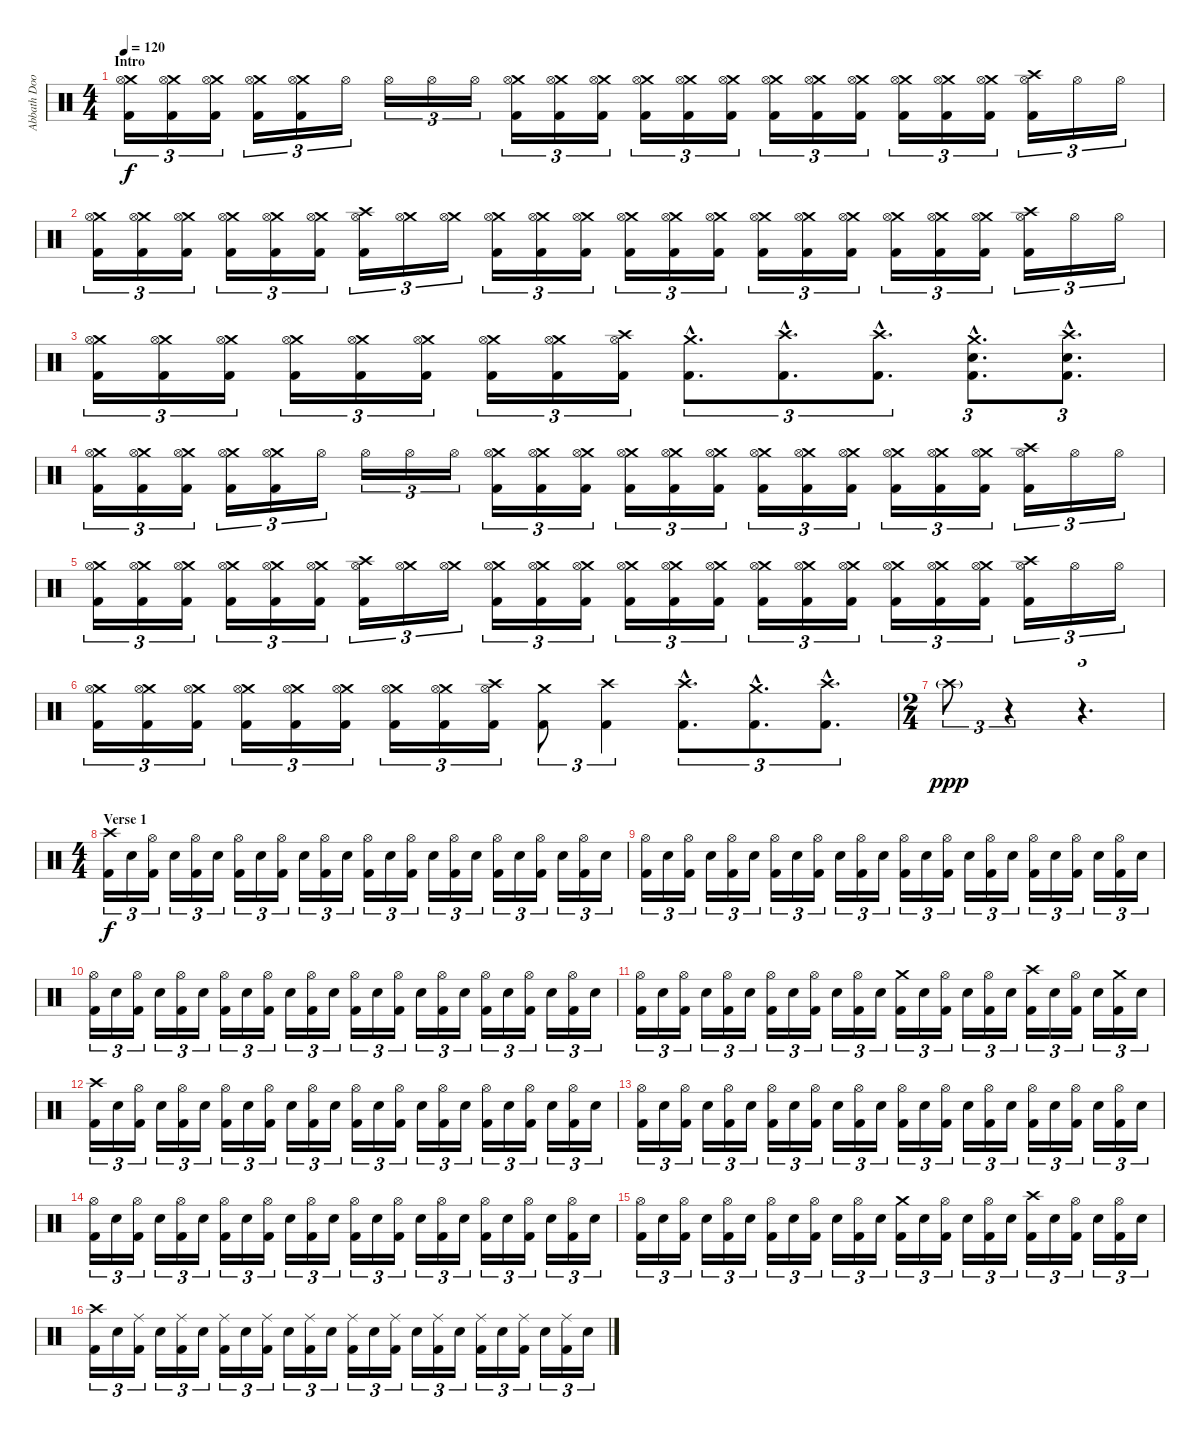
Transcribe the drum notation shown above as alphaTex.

\track ("Abbath Doom Occulta" "Abbath Doo") {instrument percussion}
\staff {score}
\articulation defaults
\ts (4 4)
\section ("" "Intro")
\tempo 120
\tempo 140
\tempo 120
\clef neutral
\ks c
("Crash medium (hit)" "Hi-Hat (open)" "Kick (hit) 2").16{tu (3 2) dy f} ("Crash medium (hit)" "Hi-Hat (open)" "Kick (hit) 2").16{tu (3 2)} ("Crash medium (hit)" "Hi-Hat (open)" "Kick (hit) 2").16{tu (3 2)} ("Crash medium (hit)" "Hi-Hat (open)" "Kick (hit) 2").16{tu (3 2)} ("Crash medium (hit)" "Hi-Hat (open)" "Kick (hit) 2").16{tu (3 2)} "Hi-Hat (open)".16{tu (3 2)} "Hi-Hat (open)".16{tu (3 2)} "Hi-Hat (open)".16{tu (3 2)} "Hi-Hat (open)".16{tu (3 2)} ("Crash medium (hit)" "Hi-Hat (open)" "Kick (hit) 2").16{tu (3 2)} ("Crash medium (hit)" "Hi-Hat (open)" "Kick (hit) 2").16{tu (3 2)} ("Crash medium (hit)" "Hi-Hat (open)" "Kick (hit) 2").16{tu (3 2)} ("Crash medium (hit)" "Hi-Hat (open)" "Kick (hit) 2").16{tu (3 2)} ("Crash medium (hit)" "Hi-Hat (open)" "Kick (hit) 2").16{tu (3 2)} ("Crash medium (hit)" "Hi-Hat (open)" "Kick (hit) 2").16{tu (3 2)} ("Crash medium (hit)" "Hi-Hat (open)" "Kick (hit) 2").16{tu (3 2)} ("Crash medium (hit)" "Hi-Hat (open)" "Kick (hit) 2").16{tu (3 2)} ("Crash medium (hit)" "Hi-Hat (open)" "Kick (hit) 2").16{tu (3 2)} ("Crash medium (hit)" "Hi-Hat (open)" "Kick (hit) 2").16{tu (3 2)} ("Crash medium (hit)" "Hi-Hat (open)" "Kick (hit) 2").16{tu (3 2)} ("Crash medium (hit)" "Hi-Hat (open)" "Kick (hit) 2").16{tu (3 2)} ("Crash high (hit)" "Hi-Hat (open)" "Kick (hit) 2").16{tu (3 2)} "Hi-Hat (open)".16{tu (3 2)} "Hi-Hat (open)".16{tu (3 2)} |
("Crash medium (hit)" "Hi-Hat (open)" "Kick (hit) 2").16{tu (3 2)} ("Crash medium (hit)" "Hi-Hat (open)" "Kick (hit) 2").16{tu (3 2)} ("Crash medium (hit)" "Hi-Hat (open)" "Kick (hit) 2").16{tu (3 2)} ("Crash medium (hit)" "Hi-Hat (open)" "Kick (hit) 2").16{tu (3 2)} ("Crash medium (hit)" "Hi-Hat (open)" "Kick (hit) 2").16{tu (3 2)} ("Crash medium (hit)" "Hi-Hat (open)" "Kick (hit) 2").16{tu (3 2)} ("Crash high (hit)" "Hi-Hat (open)" "Kick (hit) 2").16{tu (3 2)} ("Crash medium (hit)" "Hi-Hat (open)").16{tu (3 2)} ("Crash medium (hit)" "Hi-Hat (open)").16{tu (3 2)} ("Crash medium (hit)" "Hi-Hat (open)" "Kick (hit) 2").16{tu (3 2)} ("Crash medium (hit)" "Hi-Hat (open)" "Kick (hit) 2").16{tu (3 2)} ("Crash medium (hit)" "Hi-Hat (open)" "Kick (hit) 2").16{tu (3 2)} ("Crash medium (hit)" "Hi-Hat (open)" "Kick (hit) 2").16{tu (3 2)} ("Crash medium (hit)" "Hi-Hat (open)" "Kick (hit) 2").16{tu (3 2)} ("Crash medium (hit)" "Hi-Hat (open)" "Kick (hit) 2").16{tu (3 2)} ("Crash medium (hit)" "Hi-Hat (open)" "Kick (hit) 2").16{tu (3 2)} ("Crash medium (hit)" "Hi-Hat (open)" "Kick (hit) 2").16{tu (3 2)} ("Crash medium (hit)" "Hi-Hat (open)" "Kick (hit) 2").16{tu (3 2)} ("Crash medium (hit)" "Hi-Hat (open)" "Kick (hit) 2").16{tu (3 2)} ("Crash medium (hit)" "Hi-Hat (open)" "Kick (hit) 2").16{tu (3 2)} ("Crash medium (hit)" "Hi-Hat (open)" "Kick (hit) 2").16{tu (3 2)} ("Crash high (hit)" "Hi-Hat (open)" "Kick (hit) 2").16{tu (3 2)} "Hi-Hat (open)".16{tu (3 2)} "Hi-Hat (open)".16{tu (3 2)} |
("Crash medium (hit)" "Hi-Hat (open)" "Kick (hit) 2").16{tu (3 2)} ("Crash medium (hit)" "Hi-Hat (open)" "Kick (hit) 2").16{tu (3 2)} ("Crash medium (hit)" "Hi-Hat (open)" "Kick (hit) 2").16{tu (3 2)} ("Crash medium (hit)" "Hi-Hat (open)" "Kick (hit) 2").16{tu (3 2)} ("Crash medium (hit)" "Hi-Hat (open)" "Kick (hit) 2").16{tu (3 2)} ("Crash medium (hit)" "Hi-Hat (open)" "Kick (hit) 2").16{tu (3 2)} ("Crash medium (hit)" "Hi-Hat (open)" "Kick (hit) 2").16{tu (3 2)} ("Crash medium (hit)" "Hi-Hat (open)" "Kick (hit) 2").16{tu (3 2)} ("Crash high (hit)" "Hi-Hat (open)" "Kick (hit) 2").16{tu (3 2)} ("Crash medium (hit)"{hac} "Kick (hit) 2"{hac}).8{d tu (3 2)} ("Crash high (hit)"{hac} "Kick (hit) 2"{hac}).8{d tu (3 2)} ("Crash high (hit)"{hac} "Kick (hit) 2"{hac}).8{d tu (3 2)} ("Crash medium (hit)"{hac} "Electric Snare (hit)"{hac} "Kick (hit) 2"{hac}).8{d tu (3 2)} ("Crash high (hit)"{hac} "Electric Snare (hit)"{hac} "Kick (hit) 2"{hac}).8{d tu (3 2)} |
("Crash medium (hit)" "Hi-Hat (open)" "Kick (hit) 2").16{tu (3 2)} ("Crash medium (hit)" "Hi-Hat (open)" "Kick (hit) 2").16{tu (3 2)} ("Crash medium (hit)" "Hi-Hat (open)" "Kick (hit) 2").16{tu (3 2)} ("Crash medium (hit)" "Hi-Hat (open)" "Kick (hit) 2").16{tu (3 2)} ("Crash medium (hit)" "Hi-Hat (open)" "Kick (hit) 2").16{tu (3 2)} "Hi-Hat (open)".16{tu (3 2)} "Hi-Hat (open)".16{tu (3 2)} "Hi-Hat (open)".16{tu (3 2)} "Hi-Hat (open)".16{tu (3 2)} ("Crash medium (hit)" "Hi-Hat (open)" "Kick (hit) 2").16{tu (3 2)} ("Crash medium (hit)" "Hi-Hat (open)" "Kick (hit) 2").16{tu (3 2)} ("Crash medium (hit)" "Hi-Hat (open)" "Kick (hit) 2").16{tu (3 2)} ("Crash medium (hit)" "Hi-Hat (open)" "Kick (hit) 2").16{tu (3 2)} ("Crash medium (hit)" "Hi-Hat (open)" "Kick (hit) 2").16{tu (3 2)} ("Crash medium (hit)" "Hi-Hat (open)" "Kick (hit) 2").16{tu (3 2)} ("Crash medium (hit)" "Hi-Hat (open)" "Kick (hit) 2").16{tu (3 2)} ("Crash medium (hit)" "Hi-Hat (open)" "Kick (hit) 2").16{tu (3 2)} ("Crash medium (hit)" "Hi-Hat (open)" "Kick (hit) 2").16{tu (3 2)} ("Crash medium (hit)" "Hi-Hat (open)" "Kick (hit) 2").16{tu (3 2)} ("Crash medium (hit)" "Hi-Hat (open)" "Kick (hit) 2").16{tu (3 2)} ("Crash medium (hit)" "Hi-Hat (open)" "Kick (hit) 2").16{tu (3 2)} ("Crash high (hit)" "Hi-Hat (open)" "Kick (hit) 2").16{tu (3 2)} "Hi-Hat (open)".16{tu (3 2)} "Hi-Hat (open)".16{tu (3 2)} |
("Crash medium (hit)" "Hi-Hat (open)" "Kick (hit) 2").16{tu (3 2)} ("Crash medium (hit)" "Hi-Hat (open)" "Kick (hit) 2").16{tu (3 2)} ("Crash medium (hit)" "Hi-Hat (open)" "Kick (hit) 2").16{tu (3 2)} ("Crash medium (hit)" "Hi-Hat (open)" "Kick (hit) 2").16{tu (3 2)} ("Crash medium (hit)" "Hi-Hat (open)" "Kick (hit) 2").16{tu (3 2)} ("Crash medium (hit)" "Hi-Hat (open)" "Kick (hit) 2").16{tu (3 2)} ("Crash high (hit)" "Hi-Hat (open)" "Kick (hit) 2").16{tu (3 2)} ("Crash medium (hit)" "Hi-Hat (open)").16{tu (3 2)} ("Crash medium (hit)" "Hi-Hat (open)").16{tu (3 2)} ("Crash medium (hit)" "Hi-Hat (open)" "Kick (hit) 2").16{tu (3 2)} ("Crash medium (hit)" "Hi-Hat (open)" "Kick (hit) 2").16{tu (3 2)} ("Crash medium (hit)" "Hi-Hat (open)" "Kick (hit) 2").16{tu (3 2)} ("Crash medium (hit)" "Hi-Hat (open)" "Kick (hit) 2").16{tu (3 2)} ("Crash medium (hit)" "Hi-Hat (open)" "Kick (hit) 2").16{tu (3 2)} ("Crash medium (hit)" "Hi-Hat (open)" "Kick (hit) 2").16{tu (3 2)} ("Crash medium (hit)" "Hi-Hat (open)" "Kick (hit) 2").16{tu (3 2)} ("Crash medium (hit)" "Hi-Hat (open)" "Kick (hit) 2").16{tu (3 2)} ("Crash medium (hit)" "Hi-Hat (open)" "Kick (hit) 2").16{tu (3 2)} ("Crash medium (hit)" "Hi-Hat (open)" "Kick (hit) 2").16{tu (3 2)} ("Crash medium (hit)" "Hi-Hat (open)" "Kick (hit) 2").16{tu (3 2)} ("Crash medium (hit)" "Hi-Hat (open)" "Kick (hit) 2").16{tu (3 2)} ("Crash high (hit)" "Hi-Hat (open)" "Kick (hit) 2").16{tu (3 2)} "Hi-Hat (open)".16{tu (3 2)} "Hi-Hat (open)".16{tu (3 2)} |
("Crash medium (hit)" "Hi-Hat (open)" "Kick (hit) 2").16{tu (3 2)} ("Crash medium (hit)" "Hi-Hat (open)" "Kick (hit) 2").16{tu (3 2)} ("Crash medium (hit)" "Hi-Hat (open)" "Kick (hit) 2").16{tu (3 2)} ("Crash medium (hit)" "Hi-Hat (open)" "Kick (hit) 2").16{tu (3 2)} ("Crash medium (hit)" "Hi-Hat (open)" "Kick (hit) 2").16{tu (3 2)} ("Crash medium (hit)" "Hi-Hat (open)" "Kick (hit) 2").16{tu (3 2)} ("Crash medium (hit)" "Hi-Hat (open)" "Kick (hit) 2").16{tu (3 2)} ("Crash medium (hit)" "Hi-Hat (open)" "Kick (hit) 2").16{tu (3 2)} ("Crash high (hit)" "Hi-Hat (open)" "Kick (hit) 2").16{tu (3 2)} ("Crash medium (hit)" "Kick (hit) 2").8{tu (3 2)} ("Crash high (hit)" "Kick (hit) 2").4{tu (3 2)} ("Crash high (hit)"{hac} "Kick (hit) 2"{hac}).8{d tu (3 2)} ("Crash medium (hit)"{hac} "Kick (hit) 2"{hac}).8{d tu (3 2)} ("Crash high (hit)"{hac} "Kick (hit) 2"{hac}).8{d tu (3 2)} |
\ts (2 4)
"Crash high (hit)"{g}.8{tu (3 2) dy ppp} r.4{tu (3 2) volume 0} r.4{d tu (3 2)} |
\ts (4 4)
\section ("" "Verse 1")
("Crash high (hit)" "Kick (hit) 2").16{tu (3 2) dy f volume 15} "Electric Snare (hit)".16{tu (3 2)} ("Hi-Hat (open)" "Kick (hit) 2").16{tu (3 2)} "Electric Snare (hit)".16{tu (3 2)} ("Hi-Hat (open)" "Kick (hit) 2").16{tu (3 2)} "Electric Snare (hit)".16{tu (3 2)} ("Hi-Hat (open)" "Kick (hit) 2").16{tu (3 2)} "Electric Snare (hit)".16{tu (3 2)} ("Hi-Hat (open)" "Kick (hit) 2").16{tu (3 2)} "Electric Snare (hit)".16{tu (3 2)} ("Hi-Hat (open)" "Kick (hit) 2").16{tu (3 2)} "Electric Snare (hit)".16{tu (3 2)} ("Hi-Hat (open)" "Kick (hit) 2").16{tu (3 2)} "Electric Snare (hit)".16{tu (3 2)} ("Hi-Hat (open)" "Kick (hit) 2").16{tu (3 2)} "Electric Snare (hit)".16{tu (3 2)} ("Hi-Hat (open)" "Kick (hit) 2").16{tu (3 2)} "Electric Snare (hit)".16{tu (3 2)} ("Hi-Hat (open)" "Kick (hit) 2").16{tu (3 2)} "Electric Snare (hit)".16{tu (3 2)} ("Hi-Hat (open)" "Kick (hit) 2").16{tu (3 2)} "Electric Snare (hit)".16{tu (3 2)} ("Hi-Hat (open)" "Kick (hit) 2").16{tu (3 2)} "Electric Snare (hit)".16{tu (3 2)} |
("Hi-Hat (open)" "Kick (hit) 2").16{tu (3 2)} "Electric Snare (hit)".16{tu (3 2)} ("Hi-Hat (open)" "Kick (hit) 2").16{tu (3 2)} "Electric Snare (hit)".16{tu (3 2)} ("Hi-Hat (open)" "Kick (hit) 2").16{tu (3 2)} "Electric Snare (hit)".16{tu (3 2)} ("Hi-Hat (open)" "Kick (hit) 2").16{tu (3 2)} "Electric Snare (hit)".16{tu (3 2)} ("Hi-Hat (open)" "Kick (hit) 2").16{tu (3 2)} "Electric Snare (hit)".16{tu (3 2)} ("Hi-Hat (open)" "Kick (hit) 2").16{tu (3 2)} "Electric Snare (hit)".16{tu (3 2)} ("Hi-Hat (open)" "Kick (hit) 2").16{tu (3 2)} "Electric Snare (hit)".16{tu (3 2)} ("Hi-Hat (open)" "Kick (hit) 2").16{tu (3 2)} "Electric Snare (hit)".16{tu (3 2)} ("Hi-Hat (open)" "Kick (hit) 2").16{tu (3 2)} "Electric Snare (hit)".16{tu (3 2)} ("Hi-Hat (open)" "Kick (hit) 2").16{tu (3 2)} "Electric Snare (hit)".16{tu (3 2)} ("Hi-Hat (open)" "Kick (hit) 2").16{tu (3 2)} "Electric Snare (hit)".16{tu (3 2)} ("Hi-Hat (open)" "Kick (hit) 2").16{tu (3 2)} "Electric Snare (hit)".16{tu (3 2)} |
("Hi-Hat (open)" "Kick (hit) 2").16{tu (3 2)} "Electric Snare (hit)".16{tu (3 2)} ("Hi-Hat (open)" "Kick (hit) 2").16{tu (3 2)} "Electric Snare (hit)".16{tu (3 2)} ("Hi-Hat (open)" "Kick (hit) 2").16{tu (3 2)} "Electric Snare (hit)".16{tu (3 2)} ("Hi-Hat (open)" "Kick (hit) 2").16{tu (3 2)} "Electric Snare (hit)".16{tu (3 2)} ("Hi-Hat (open)" "Kick (hit) 2").16{tu (3 2)} "Electric Snare (hit)".16{tu (3 2)} ("Hi-Hat (open)" "Kick (hit) 2").16{tu (3 2)} "Electric Snare (hit)".16{tu (3 2)} ("Hi-Hat (open)" "Kick (hit) 2").16{tu (3 2)} "Electric Snare (hit)".16{tu (3 2)} ("Hi-Hat (open)" "Kick (hit) 2").16{tu (3 2)} "Electric Snare (hit)".16{tu (3 2)} ("Hi-Hat (open)" "Kick (hit) 2").16{tu (3 2)} "Electric Snare (hit)".16{tu (3 2)} ("Hi-Hat (open)" "Kick (hit) 2").16{tu (3 2)} "Electric Snare (hit)".16{tu (3 2)} ("Hi-Hat (open)" "Kick (hit) 2").16{tu (3 2)} "Electric Snare (hit)".16{tu (3 2)} ("Hi-Hat (open)" "Kick (hit) 2").16{tu (3 2)} "Electric Snare (hit)".16{tu (3 2)} |
("Hi-Hat (open)" "Kick (hit) 2").16{tu (3 2)} "Electric Snare (hit)".16{tu (3 2)} ("Hi-Hat (open)" "Kick (hit) 2").16{tu (3 2)} "Electric Snare (hit)".16{tu (3 2)} ("Hi-Hat (open)" "Kick (hit) 2").16{tu (3 2)} "Electric Snare (hit)".16{tu (3 2)} ("Hi-Hat (open)" "Kick (hit) 2").16{tu (3 2)} "Electric Snare (hit)".16{tu (3 2)} ("Hi-Hat (open)" "Kick (hit) 2").16{tu (3 2)} "Electric Snare (hit)".16{tu (3 2)} ("Hi-Hat (open)" "Kick (hit) 2").16{tu (3 2)} "Electric Snare (hit)".16{tu (3 2)} ("Crash medium (hit)" "Kick (hit) 2").16{tu (3 2)} "Electric Snare (hit)".16{tu (3 2)} ("Hi-Hat (open)" "Kick (hit) 2").16{tu (3 2)} "Electric Snare (hit)".16{tu (3 2)} ("Hi-Hat (open)" "Kick (hit) 2").16{tu (3 2)} "Electric Snare (hit)".16{tu (3 2)} ("Crash high (hit)" "Kick (hit) 2").16{tu (3 2)} "Electric Snare (hit)".16{tu (3 2)} ("Hi-Hat (open)" "Kick (hit) 2").16{tu (3 2)} "Electric Snare (hit)".16{tu (3 2)} ("Crash medium (hit)" "Kick (hit) 2").16{tu (3 2)} "Electric Snare (hit)".16{tu (3 2)} |
("Crash high (hit)" "Kick (hit) 2").16{tu (3 2)} "Electric Snare (hit)".16{tu (3 2)} ("Hi-Hat (open)" "Kick (hit) 2").16{tu (3 2)} "Electric Snare (hit)".16{tu (3 2)} ("Hi-Hat (open)" "Kick (hit) 2").16{tu (3 2)} "Electric Snare (hit)".16{tu (3 2)} ("Hi-Hat (open)" "Kick (hit) 2").16{tu (3 2)} "Electric Snare (hit)".16{tu (3 2)} ("Hi-Hat (open)" "Kick (hit) 2").16{tu (3 2)} "Electric Snare (hit)".16{tu (3 2)} ("Hi-Hat (open)" "Kick (hit) 2").16{tu (3 2)} "Electric Snare (hit)".16{tu (3 2)} ("Hi-Hat (open)" "Kick (hit) 2").16{tu (3 2)} "Electric Snare (hit)".16{tu (3 2)} ("Hi-Hat (open)" "Kick (hit) 2").16{tu (3 2)} "Electric Snare (hit)".16{tu (3 2)} ("Hi-Hat (open)" "Kick (hit) 2").16{tu (3 2)} "Electric Snare (hit)".16{tu (3 2)} ("Hi-Hat (open)" "Kick (hit) 2").16{tu (3 2)} "Electric Snare (hit)".16{tu (3 2)} ("Hi-Hat (open)" "Kick (hit) 2").16{tu (3 2)} "Electric Snare (hit)".16{tu (3 2)} ("Hi-Hat (open)" "Kick (hit) 2").16{tu (3 2)} "Electric Snare (hit)".16{tu (3 2)} |
("Hi-Hat (open)" "Kick (hit) 2").16{tu (3 2)} "Electric Snare (hit)".16{tu (3 2)} ("Hi-Hat (open)" "Kick (hit) 2").16{tu (3 2)} "Electric Snare (hit)".16{tu (3 2)} ("Hi-Hat (open)" "Kick (hit) 2").16{tu (3 2)} "Electric Snare (hit)".16{tu (3 2)} ("Hi-Hat (open)" "Kick (hit) 2").16{tu (3 2)} "Electric Snare (hit)".16{tu (3 2)} ("Hi-Hat (open)" "Kick (hit) 2").16{tu (3 2)} "Electric Snare (hit)".16{tu (3 2)} ("Hi-Hat (open)" "Kick (hit) 2").16{tu (3 2)} "Electric Snare (hit)".16{tu (3 2)} ("Hi-Hat (open)" "Kick (hit) 2").16{tu (3 2)} "Electric Snare (hit)".16{tu (3 2)} ("Hi-Hat (open)" "Kick (hit) 2").16{tu (3 2)} "Electric Snare (hit)".16{tu (3 2)} ("Hi-Hat (open)" "Kick (hit) 2").16{tu (3 2)} "Electric Snare (hit)".16{tu (3 2)} ("Hi-Hat (open)" "Kick (hit) 2").16{tu (3 2)} "Electric Snare (hit)".16{tu (3 2)} ("Hi-Hat (open)" "Kick (hit) 2").16{tu (3 2)} "Electric Snare (hit)".16{tu (3 2)} ("Hi-Hat (open)" "Kick (hit) 2").16{tu (3 2)} "Electric Snare (hit)".16{tu (3 2)} |
("Hi-Hat (open)" "Kick (hit) 2").16{tu (3 2)} "Electric Snare (hit)".16{tu (3 2)} ("Hi-Hat (open)" "Kick (hit) 2").16{tu (3 2)} "Electric Snare (hit)".16{tu (3 2)} ("Hi-Hat (open)" "Kick (hit) 2").16{tu (3 2)} "Electric Snare (hit)".16{tu (3 2)} ("Hi-Hat (open)" "Kick (hit) 2").16{tu (3 2)} "Electric Snare (hit)".16{tu (3 2)} ("Hi-Hat (open)" "Kick (hit) 2").16{tu (3 2)} "Electric Snare (hit)".16{tu (3 2)} ("Hi-Hat (open)" "Kick (hit) 2").16{tu (3 2)} "Electric Snare (hit)".16{tu (3 2)} ("Hi-Hat (open)" "Kick (hit) 2").16{tu (3 2)} "Electric Snare (hit)".16{tu (3 2)} ("Hi-Hat (open)" "Kick (hit) 2").16{tu (3 2)} "Electric Snare (hit)".16{tu (3 2)} ("Hi-Hat (open)" "Kick (hit) 2").16{tu (3 2)} "Electric Snare (hit)".16{tu (3 2)} ("Hi-Hat (open)" "Kick (hit) 2").16{tu (3 2)} "Electric Snare (hit)".16{tu (3 2)} ("Hi-Hat (open)" "Kick (hit) 2").16{tu (3 2)} "Electric Snare (hit)".16{tu (3 2)} ("Hi-Hat (open)" "Kick (hit) 2").16{tu (3 2)} "Electric Snare (hit)".16{tu (3 2)} |
("Hi-Hat (open)" "Kick (hit) 2").16{tu (3 2)} "Electric Snare (hit)".16{tu (3 2)} ("Hi-Hat (open)" "Kick (hit) 2").16{tu (3 2)} "Electric Snare (hit)".16{tu (3 2)} ("Hi-Hat (open)" "Kick (hit) 2").16{tu (3 2)} "Electric Snare (hit)".16{tu (3 2)} ("Hi-Hat (open)" "Kick (hit) 2").16{tu (3 2)} "Electric Snare (hit)".16{tu (3 2)} ("Hi-Hat (open)" "Kick (hit) 2").16{tu (3 2)} "Electric Snare (hit)".16{tu (3 2)} ("Hi-Hat (open)" "Kick (hit) 2").16{tu (3 2)} "Electric Snare (hit)".16{tu (3 2)} ("Crash medium (hit)" "Kick (hit) 2").16{tu (3 2)} "Electric Snare (hit)".16{tu (3 2)} ("Hi-Hat (open)" "Kick (hit) 2").16{tu (3 2)} "Electric Snare (hit)".16{tu (3 2)} ("Hi-Hat (open)" "Kick (hit) 2").16{tu (3 2)} "Electric Snare (hit)".16{tu (3 2)} ("Crash high (hit)" "Kick (hit) 2").16{tu (3 2)} "Electric Snare (hit)".16{tu (3 2)} ("Hi-Hat (open)" "Kick (hit) 2").16{tu (3 2)} "Electric Snare (hit)".16{tu (3 2)} ("Hi-Hat (open)" "Kick (hit) 2").16{tu (3 2)} "Electric Snare (hit)".16{tu (3 2)} |
("Crash high (hit)" "Kick (hit) 2").16{tu (3 2)} "Electric Snare (hit)".16{tu (3 2)} ("Ride (middle)" "Kick (hit) 2").16{tu (3 2)} "Electric Snare (hit)".16{tu (3 2)} ("Ride (middle)" "Kick (hit) 2").16{tu (3 2)} "Electric Snare (hit)".16{tu (3 2)} ("Ride (middle)" "Kick (hit) 2").16{tu (3 2)} "Electric Snare (hit)".16{tu (3 2)} ("Ride (middle)" "Kick (hit) 2").16{tu (3 2)} "Electric Snare (hit)".16{tu (3 2)} ("Ride (middle)" "Kick (hit) 2").16{tu (3 2)} "Electric Snare (hit)".16{tu (3 2)} ("Ride (middle)" "Kick (hit) 2").16{tu (3 2)} "Electric Snare (hit)".16{tu (3 2)} ("Ride (middle)" "Kick (hit) 2").16{tu (3 2)} "Electric Snare (hit)".16{tu (3 2)} ("Ride (middle)" "Kick (hit) 2").16{tu (3 2)} "Electric Snare (hit)".16{tu (3 2)} ("Ride (middle)" "Kick (hit) 2").16{tu (3 2)} "Electric Snare (hit)".16{tu (3 2)} ("Ride (middle)" "Kick (hit) 2").16{tu (3 2)} "Electric Snare (hit)".16{tu (3 2)} ("Ride (middle)" "Kick (hit) 2").16{tu (3 2)} "Electric Snare (hit)".16{tu (3 2)}
